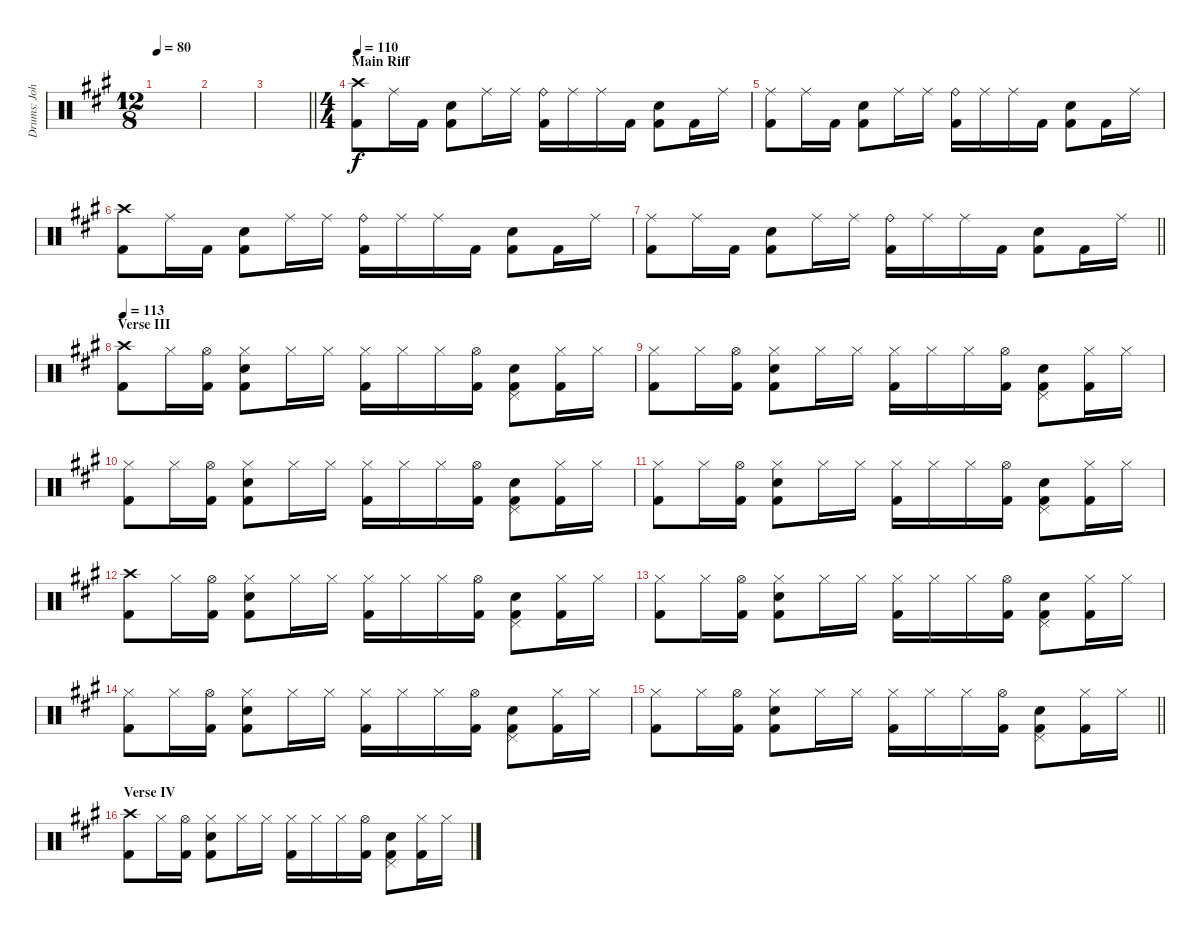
\track ("Drums: John" "Drums: Joh") {instrument percussion}
\staff {score}
\articulation defaults
\ts (12 8)
\tempo 80
\clef neutral
\ks a
|
|
\barLineRight lightlight
|
\ts (4 4)
\section ("" "Main Riff")
\tempo 110
("Crash high (hit)" "Kick (hit) 2").8 "Ride (middle)".16 "Kick (hit) 2".16 ("Snare (hit) 2" "Kick (hit) 2").8 "Ride (middle)".16 "Ride (middle)".16 ("Ride (bell)" "Kick (hit) 2").16 "Ride (middle)".16 "Ride (middle)".16 "Kick (hit) 2".16 ("Snare (hit) 2" "Kick (hit) 2").8 "Kick (hit) 2".16 "Ride (middle)".16 |
("Ride (middle)" "Kick (hit) 2").8 "Ride (middle)".16 "Kick (hit) 2".16 ("Snare (hit) 2" "Kick (hit) 2").8 "Ride (middle)".16 "Ride (middle)".16 ("Ride (bell)" "Kick (hit) 2").16 "Ride (middle)".16 "Ride (middle)".16 "Kick (hit) 2".16 ("Snare (hit) 2" "Kick (hit) 2").8 "Kick (hit) 2".16 "Ride (middle)".16 |
("Crash high (hit)" "Kick (hit) 2").8 "Ride (middle)".16 "Kick (hit) 2".16 ("Snare (hit) 2" "Kick (hit) 2").8 "Ride (middle)".16 "Ride (middle)".16 ("Ride (bell)" "Kick (hit) 2").16 "Ride (middle)".16 "Ride (middle)".16 "Kick (hit) 2".16 ("Snare (hit) 2" "Kick (hit) 2").8 "Kick (hit) 2".16 "Ride (middle)".16 |
\barLineRight lightlight
("Ride (middle)" "Kick (hit) 2").8 "Ride (middle)".16 "Kick (hit) 2".16 ("Snare (hit) 2" "Kick (hit) 2").8 "Ride (middle)".16 "Ride (middle)".16 ("Ride (bell)" "Kick (hit) 2").16 "Ride (middle)".16 "Ride (middle)".16 "Kick (hit) 2".16 ("Snare (hit) 2" "Kick (hit) 2").8 "Kick (hit) 2".16 "Ride (middle)".16 |
\section ("" "Verse III")
\tempo 113
("Crash high (hit)" "Kick (hit) 2").8 "Hi-Hat (closed)".16 ("Hi-Hat (open)" "Kick (hit) 2").16 ("Hi-Hat (closed)" "Electric Snare (hit)" "Kick (hit) 2").8 "Hi-Hat (closed)".16 "Hi-Hat (closed)".16 ("Hi-Hat (closed)" "Kick (hit) 2").16 "Hi-Hat (closed)".16 "Hi-Hat (closed)".16 ("Hi-Hat (open)" "Kick (hit) 2").16 ("Pedal Hi-Hat (hit)" "Electric Snare (hit)" "Kick (hit) 2").8 ("Hi-Hat (closed)" "Kick (hit) 2").16 "Hi-Hat (closed)".16 |
("Hi-Hat (closed)" "Kick (hit) 2").8 "Hi-Hat (closed)".16 ("Hi-Hat (open)" "Kick (hit) 2").16 ("Hi-Hat (closed)" "Electric Snare (hit)" "Kick (hit) 2").8 "Hi-Hat (closed)".16 "Hi-Hat (closed)".16 ("Hi-Hat (closed)" "Kick (hit) 2").16 "Hi-Hat (closed)".16 "Hi-Hat (closed)".16 ("Hi-Hat (open)" "Kick (hit) 2").16 ("Pedal Hi-Hat (hit)" "Electric Snare (hit)" "Kick (hit) 2").8 ("Hi-Hat (closed)" "Kick (hit) 2").16 "Hi-Hat (closed)".16 |
("Hi-Hat (closed)" "Kick (hit) 2").8 "Hi-Hat (closed)".16 ("Hi-Hat (open)" "Kick (hit) 2").16 ("Hi-Hat (closed)" "Electric Snare (hit)" "Kick (hit) 2").8 "Hi-Hat (closed)".16 "Hi-Hat (closed)".16 ("Hi-Hat (closed)" "Kick (hit) 2").16 "Hi-Hat (closed)".16 "Hi-Hat (closed)".16 ("Hi-Hat (open)" "Kick (hit) 2").16 ("Pedal Hi-Hat (hit)" "Electric Snare (hit)" "Kick (hit) 2").8 ("Hi-Hat (closed)" "Kick (hit) 2").16 "Hi-Hat (closed)".16 |
("Hi-Hat (closed)" "Kick (hit) 2").8 "Hi-Hat (closed)".16 ("Hi-Hat (open)" "Kick (hit) 2").16 ("Hi-Hat (closed)" "Electric Snare (hit)" "Kick (hit) 2").8 "Hi-Hat (closed)".16 "Hi-Hat (closed)".16 ("Hi-Hat (closed)" "Kick (hit) 2").16 "Hi-Hat (closed)".16 "Hi-Hat (closed)".16 ("Hi-Hat (open)" "Kick (hit) 2").16 ("Pedal Hi-Hat (hit)" "Electric Snare (hit)" "Kick (hit) 2").8 ("Hi-Hat (closed)" "Kick (hit) 2").16 "Hi-Hat (closed)".16 |
("Crash high (hit)" "Kick (hit) 2").8 "Hi-Hat (closed)".16 ("Hi-Hat (open)" "Kick (hit) 2").16 ("Hi-Hat (closed)" "Electric Snare (hit)" "Kick (hit) 2").8 "Hi-Hat (closed)".16 "Hi-Hat (closed)".16 ("Hi-Hat (closed)" "Kick (hit) 2").16 "Hi-Hat (closed)".16 "Hi-Hat (closed)".16 ("Hi-Hat (open)" "Kick (hit) 2").16 ("Pedal Hi-Hat (hit)" "Electric Snare (hit)" "Kick (hit) 2").8 ("Hi-Hat (closed)" "Kick (hit) 2").16 "Hi-Hat (closed)".16 |
("Hi-Hat (closed)" "Kick (hit) 2").8 "Hi-Hat (closed)".16 ("Hi-Hat (open)" "Kick (hit) 2").16 ("Hi-Hat (closed)" "Electric Snare (hit)" "Kick (hit) 2").8 "Hi-Hat (closed)".16 "Hi-Hat (closed)".16 ("Hi-Hat (closed)" "Kick (hit) 2").16 "Hi-Hat (closed)".16 "Hi-Hat (closed)".16 ("Hi-Hat (open)" "Kick (hit) 2").16 ("Pedal Hi-Hat (hit)" "Electric Snare (hit)" "Kick (hit) 2").8 ("Hi-Hat (closed)" "Kick (hit) 2").16 "Hi-Hat (closed)".16 |
("Hi-Hat (closed)" "Kick (hit) 2").8 "Hi-Hat (closed)".16 ("Hi-Hat (open)" "Kick (hit) 2").16 ("Hi-Hat (closed)" "Electric Snare (hit)" "Kick (hit) 2").8 "Hi-Hat (closed)".16 "Hi-Hat (closed)".16 ("Hi-Hat (closed)" "Kick (hit) 2").16 "Hi-Hat (closed)".16 "Hi-Hat (closed)".16 ("Hi-Hat (open)" "Kick (hit) 2").16 ("Pedal Hi-Hat (hit)" "Electric Snare (hit)" "Kick (hit) 2").8 ("Hi-Hat (closed)" "Kick (hit) 2").16 "Hi-Hat (closed)".16 |
\barLineRight lightlight
("Hi-Hat (closed)" "Kick (hit) 2").8 "Hi-Hat (closed)".16 ("Hi-Hat (open)" "Kick (hit) 2").16 ("Hi-Hat (closed)" "Electric Snare (hit)" "Kick (hit) 2").8 "Hi-Hat (closed)".16 "Hi-Hat (closed)".16 ("Hi-Hat (closed)" "Kick (hit) 2").16 "Hi-Hat (closed)".16 "Hi-Hat (closed)".16 ("Hi-Hat (open)" "Kick (hit) 2").16 ("Pedal Hi-Hat (hit)" "Electric Snare (hit)" "Kick (hit) 2").8 ("Hi-Hat (closed)" "Kick (hit) 2").16 "Hi-Hat (closed)".16 |
\section ("" "Verse IV")
("Crash high (hit)" "Kick (hit) 2").8 "Hi-Hat (closed)".16 ("Hi-Hat (open)" "Kick (hit) 2").16 ("Hi-Hat (closed)" "Electric Snare (hit)" "Kick (hit) 2").8 "Hi-Hat (closed)".16 "Hi-Hat (closed)".16 ("Hi-Hat (closed)" "Kick (hit) 2").16 "Hi-Hat (closed)".16 "Hi-Hat (closed)".16 ("Hi-Hat (open)" "Kick (hit) 2").16 ("Pedal Hi-Hat (hit)" "Electric Snare (hit)" "Kick (hit) 2").8 ("Hi-Hat (closed)" "Kick (hit) 2").16 "Hi-Hat (closed)".16
